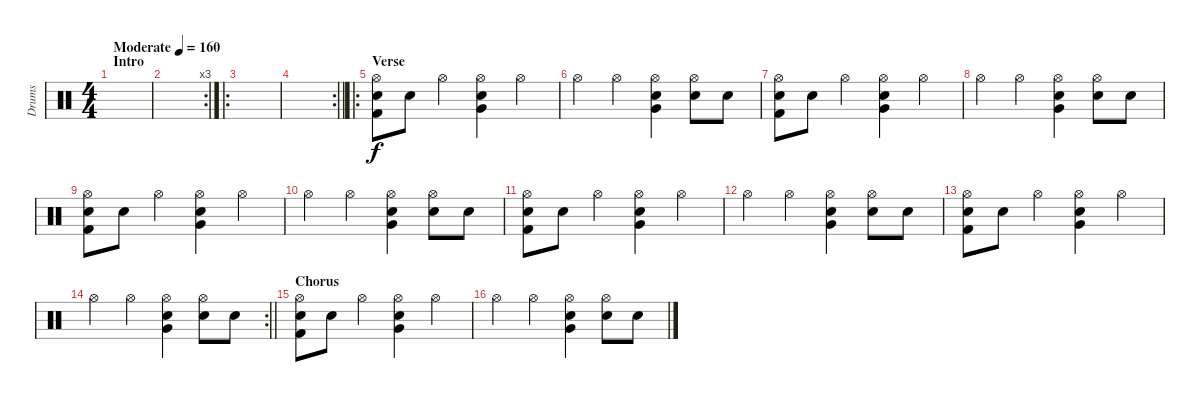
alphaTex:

\track ("Drums" "Drums") {instrument percussion}
\staff {score}
\articulation defaults
\ts (4 4)
\section ("" "Intro")
\tempo (160 "Moderate")
\clef neutral
\ks c
|
\rc 3
|
\ro
|
\rc 2
\barLineRight lightlight
|
\ro
\section ("" "Verse")
("Hi-Hat (open)" "Electric Snare (hit)" "Kick (hit) 2").8 "Electric Snare (hit)".8 "Hi-Hat (open)".4 ("Hi-Hat (open)" "Electric Snare (hit)" "Very Low Tom (hit)").4 "Hi-Hat (open)".4 |
"Hi-Hat (open)".4 "Hi-Hat (open)".4 ("Hi-Hat (open)" "Electric Snare (hit)" "Very Low Tom (hit)").4 ("Hi-Hat (open)" "Snare (hit) 2").8 "Electric Snare (hit)".8 |
("Hi-Hat (open)" "Electric Snare (hit)" "Kick (hit) 2").8 "Electric Snare (hit)".8 "Hi-Hat (open)".4 ("Hi-Hat (open)" "Electric Snare (hit)" "Very Low Tom (hit)").4 "Hi-Hat (open)".4 |
"Hi-Hat (open)".4 "Hi-Hat (open)".4 ("Hi-Hat (open)" "Electric Snare (hit)" "Very Low Tom (hit)").4 ("Hi-Hat (open)" "Snare (hit) 2").8 "Electric Snare (hit)".8 |
("Hi-Hat (open)" "Electric Snare (hit)" "Kick (hit) 2").8 "Electric Snare (hit)".8 "Hi-Hat (open)".4 ("Hi-Hat (open)" "Electric Snare (hit)" "Very Low Tom (hit)").4 "Hi-Hat (open)".4 |
"Hi-Hat (open)".4 "Hi-Hat (open)".4 ("Hi-Hat (open)" "Electric Snare (hit)" "Very Low Tom (hit)").4 ("Hi-Hat (open)" "Snare (hit) 2").8 "Electric Snare (hit)".8 |
("Hi-Hat (open)" "Electric Snare (hit)" "Kick (hit) 2").8 "Electric Snare (hit)".8 "Hi-Hat (open)".4 ("Hi-Hat (open)" "Electric Snare (hit)" "Very Low Tom (hit)").4 "Hi-Hat (open)".4 |
"Hi-Hat (open)".4 "Hi-Hat (open)".4 ("Hi-Hat (open)" "Electric Snare (hit)" "Very Low Tom (hit)").4 ("Hi-Hat (open)" "Snare (hit) 2").8 "Electric Snare (hit)".8 |
("Hi-Hat (open)" "Electric Snare (hit)" "Kick (hit) 2").8 "Electric Snare (hit)".8 "Hi-Hat (open)".4 ("Hi-Hat (open)" "Electric Snare (hit)" "Very Low Tom (hit)").4 "Hi-Hat (open)".4 |
\rc 2
\barLineRight lightlight "Hi-Hat (open)".4 "Hi-Hat (open)".4
("Hi-Hat (open)" "Electric Snare (hit)" "Very Low Tom (hit)").4 ("Hi-Hat (open)" "Snare (hit) 2").8 "Electric Snare (hit)".8 |
\section ("" "Chorus")
("Hi-Hat (open)" "Electric Snare (hit)" "Kick (hit) 2").8 "Electric Snare (hit)".8 "Hi-Hat (open)".4 ("Hi-Hat (open)" "Electric Snare (hit)" "Very Low Tom (hit)").4 "Hi-Hat (open)".4 |
"Hi-Hat (open)".4 "Hi-Hat (open)".4 ("Hi-Hat (open)" "Electric Snare (hit)" "Very Low Tom (hit)").4 ("Hi-Hat (open)" "Snare (hit) 2").8 "Electric Snare (hit)".8
